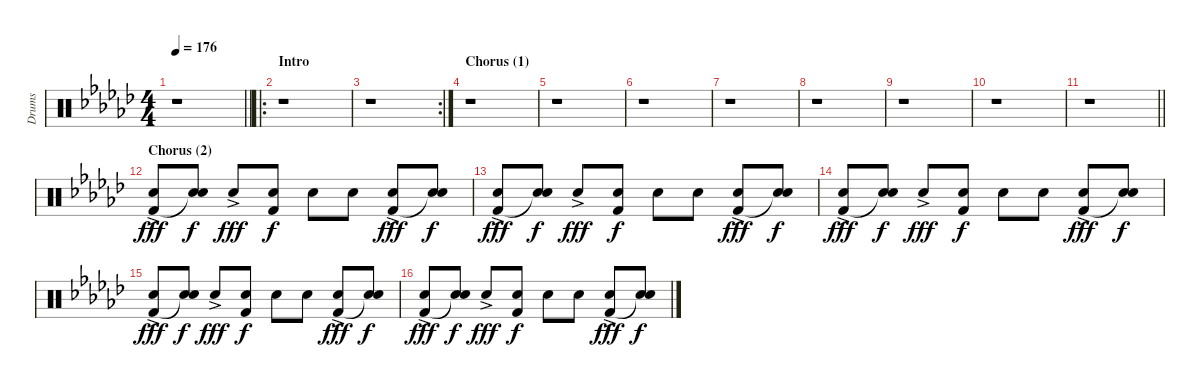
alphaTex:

\track ("Drums" "Drums") {instrument percussion}
\staff {score}
\articulation defaults
\ts (4 4)
\tempo 176
\clef neutral
\barLineRight lightlight
\ks ebminor
r.1{dy fff} |
\ro
\section ("" "Intro")
r.1 |
\rc 2
r.1 |
\section ("" "Chorus (1)")
r.1 |
r.1 |
r.1 |
r.1 |
r.1 |
r.1 |
r.1 |
\barLineRight lightlight
r.1 |
\section ("" "Chorus (2)")
("Electric Snare (hit)"{ac} "Kick (hit) 2").8 ("Electric Snare (hit)" "Snare (hit)"{t}).8{dy f} "Electric Snare (hit)"{ac}.8{dy fff} ("Electric Snare (hit)" "Kick (hit) 2").8{dy f} "Electric Snare (hit)".8 "Electric Snare (hit)".8 ("Electric Snare (hit)"{ac} "Kick (hit) 2").8{dy fff} ("Electric Snare (hit)" "Snare (hit)"{t}).8{dy f} |
("Electric Snare (hit)"{ac} "Kick (hit) 2").8{dy fff} ("Electric Snare (hit)" "Snare (hit)"{t}).8{dy f} "Electric Snare (hit)"{ac}.8{dy fff} ("Electric Snare (hit)" "Kick (hit) 2").8{dy f} "Electric Snare (hit)".8 "Electric Snare (hit)".8 ("Electric Snare (hit)"{ac} "Kick (hit) 2").8{dy fff} ("Electric Snare (hit)" "Snare (hit)"{t}).8{dy f} |
("Electric Snare (hit)"{ac} "Kick (hit) 2").8{dy fff} ("Electric Snare (hit)" "Snare (hit)"{t}).8{dy f} "Electric Snare (hit)"{ac}.8{dy fff} ("Electric Snare (hit)" "Kick (hit) 2").8{dy f} "Electric Snare (hit)".8 "Electric Snare (hit)".8 ("Electric Snare (hit)"{ac} "Kick (hit) 2").8{dy fff} ("Electric Snare (hit)" "Snare (hit)"{t}).8{dy f} |
("Electric Snare (hit)"{ac} "Kick (hit) 2").8{dy fff} ("Electric Snare (hit)" "Snare (hit)"{t}).8{dy f} "Electric Snare (hit)"{ac}.8{dy fff} ("Electric Snare (hit)" "Kick (hit) 2").8{dy f} "Electric Snare (hit)".8 "Electric Snare (hit)".8 ("Electric Snare (hit)"{ac} "Kick (hit) 2").8{dy fff} ("Electric Snare (hit)" "Snare (hit)"{t}).8{dy f} |
("Electric Snare (hit)"{ac} "Kick (hit) 2").8{dy fff} ("Electric Snare (hit)" "Snare (hit)"{t}).8{dy f} "Electric Snare (hit)"{ac}.8{dy fff} ("Electric Snare (hit)" "Kick (hit) 2").8{dy f} "Electric Snare (hit)".8 "Electric Snare (hit)".8 ("Electric Snare (hit)"{ac} "Kick (hit) 2").8{dy fff} ("Electric Snare (hit)" "Snare (hit)"{t}).8{dy f}
